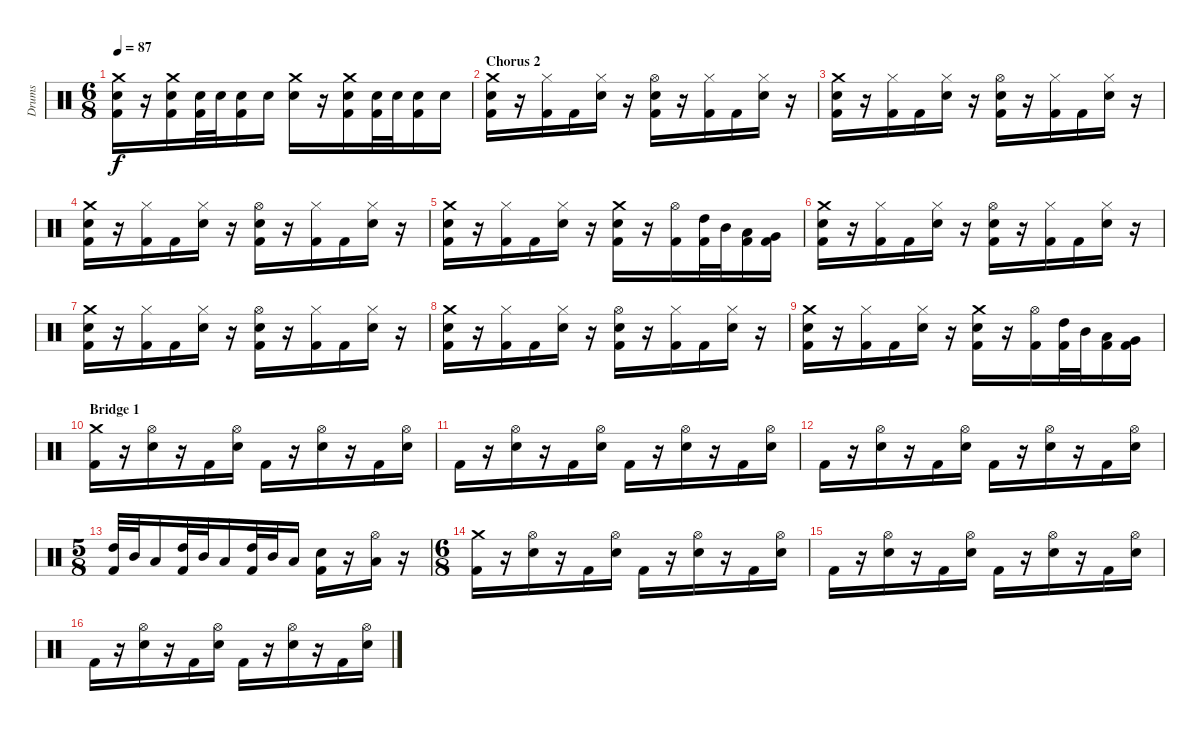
\track ("Drums" "Drums") {instrument percussion}
\staff {score}
\articulation defaults
\ts (6 8)
\tempo 87
\clef neutral
\ks c
("Crash medium (hit)" "Snare (hit) 2" "Kick (hit) 2").16{dy f} r.16 ("Crash medium (hit)" "Snare (hit) 2" "Kick (hit) 2").16 ("Snare (hit) 2" "Kick (hit) 2").32 "Snare (hit) 2".32 ("Snare (hit) 2" "Kick (hit) 2").16 "Snare (hit) 2".16 ("Crash medium (hit)" "Snare (hit) 2").16 r.16 ("Crash medium (hit)" "Snare (hit) 2" "Kick (hit) 2").16 ("Snare (hit) 2" "Kick (hit) 2").32 "Snare (hit) 2".32 ("Snare (hit) 2" "Kick (hit) 2").16 "Snare (hit) 2".16 |
\section ("" "Chorus 2")
("Crash medium (hit)" "Snare (hit) 2" "Kick (hit) 2").16 r.16 ("Hi-Hat (closed)" "Kick (hit) 2").16 "Kick (hit) 2".16 ("Hi-Hat (closed)" "Snare (hit) 2").16 r.16 ("Hi-Hat (open)" "Snare (hit) 2" "Kick (hit) 2").16 r.16 ("Hi-Hat (closed)" "Kick (hit) 2").16 "Kick (hit) 2".16 ("Hi-Hat (closed)" "Snare (hit) 2").16 r.16 |
("Crash medium (hit)" "Snare (hit) 2" "Kick (hit) 2").16 r.16 ("Hi-Hat (closed)" "Kick (hit) 2").16 "Kick (hit) 2".16 ("Hi-Hat (closed)" "Snare (hit) 2").16 r.16 ("Hi-Hat (open)" "Snare (hit) 2" "Kick (hit) 2").16 r.16 ("Hi-Hat (closed)" "Kick (hit) 2").16 "Kick (hit) 2".16 ("Hi-Hat (closed)" "Snare (hit) 2").16 r.16 |
("Crash medium (hit)" "Snare (hit) 2" "Kick (hit) 2").16 r.16 ("Hi-Hat (closed)" "Kick (hit) 2").16 "Kick (hit) 2".16 ("Hi-Hat (closed)" "Snare (hit) 2").16 r.16 ("Hi-Hat (open)" "Snare (hit) 2" "Kick (hit) 2").16 r.16 ("Hi-Hat (closed)" "Kick (hit) 2").16 "Kick (hit) 2".16 ("Hi-Hat (closed)" "Snare (hit) 2").16 r.16 |
("Crash medium (hit)" "Snare (hit) 2" "Kick (hit) 2").16 r.16 ("Hi-Hat (closed)" "Kick (hit) 2").16 "Kick (hit) 2".16 ("Hi-Hat (closed)" "Snare (hit) 2").16 r.16 ("Crash medium (hit)" "Snare (hit) 2" "Kick (hit) 2").16 r.16 ("Hi-Hat (open)" "Kick (hit) 2").16 ("High Tom (hit)" "Kick (hit) 2").32 "Mid Tom (hit)".32 ("Low Tom (hit)" "Kick (hit) 2").16 ("Very Low Tom (hit)" "Kick (hit) 2").16 |
("Crash medium (hit)" "Snare (hit) 2" "Kick (hit) 2").16 r.16 ("Hi-Hat (closed)" "Kick (hit) 2").16 "Kick (hit) 2".16 ("Hi-Hat (closed)" "Snare (hit) 2").16 r.16 ("Hi-Hat (open)" "Snare (hit) 2" "Kick (hit) 2").16 r.16 ("Hi-Hat (closed)" "Kick (hit) 2").16 "Kick (hit) 2".16 ("Hi-Hat (closed)" "Snare (hit) 2").16 r.16 |
("Crash medium (hit)" "Snare (hit) 2" "Kick (hit) 2").16 r.16 ("Hi-Hat (closed)" "Kick (hit) 2").16 "Kick (hit) 2".16 ("Hi-Hat (closed)" "Snare (hit) 2").16 r.16 ("Hi-Hat (open)" "Snare (hit) 2" "Kick (hit) 2").16 r.16 ("Hi-Hat (closed)" "Kick (hit) 2").16 "Kick (hit) 2".16 ("Hi-Hat (closed)" "Snare (hit) 2").16 r.16 |
("Crash medium (hit)" "Snare (hit) 2" "Kick (hit) 2").16 r.16 ("Hi-Hat (closed)" "Kick (hit) 2").16 "Kick (hit) 2".16 ("Hi-Hat (closed)" "Snare (hit) 2").16 r.16 ("Hi-Hat (open)" "Snare (hit) 2" "Kick (hit) 2").16 r.16 ("Hi-Hat (closed)" "Kick (hit) 2").16 "Kick (hit) 2".16 ("Hi-Hat (closed)" "Snare (hit) 2").16 r.16 |
("Crash medium (hit)" "Snare (hit) 2" "Kick (hit) 2").16 r.16 ("Hi-Hat (closed)" "Kick (hit) 2").16 "Kick (hit) 2".16 ("Hi-Hat (closed)" "Snare (hit) 2").16 r.16 ("Crash medium (hit)" "Snare (hit) 2" "Kick (hit) 2").16 r.16 ("Hi-Hat (open)" "Kick (hit) 2").16 ("High Tom (hit)" "Kick (hit) 2").32 "Mid Tom (hit)".32 ("Low Tom (hit)" "Kick (hit) 2").16 ("Very Low Tom (hit)" "Kick (hit) 2").16 |
\section ("" "Bridge 1")
("Crash medium (hit)" "Kick (hit) 2").16 r.16 ("Hi-Hat (open)" "Snare (hit) 2").16 r.16 "Kick (hit) 2".16 ("Hi-Hat (open)" "Snare (hit) 2").16 "Kick (hit) 2".16 r.16 ("Hi-Hat (open)" "Snare (hit) 2").16 r.16 "Kick (hit) 2".16 ("Hi-Hat (open)" "Snare (hit) 2").16 |
"Kick (hit) 2".16 r.16 ("Hi-Hat (open)" "Snare (hit) 2").16 r.16 "Kick (hit) 2".16 ("Hi-Hat (open)" "Snare (hit) 2").16 "Kick (hit) 2".16 r.16 ("Hi-Hat (open)" "Snare (hit) 2").16 r.16 "Kick (hit) 2".16 ("Hi-Hat (open)" "Snare (hit) 2").16 |
"Kick (hit) 2".16 r.16 ("Hi-Hat (open)" "Snare (hit) 2").16 r.16 "Kick (hit) 2".16 ("Hi-Hat (open)" "Snare (hit) 2").16 "Kick (hit) 2".16 r.16 ("Hi-Hat (open)" "Snare (hit) 2").16 r.16 "Kick (hit) 2".16 ("Hi-Hat (open)" "Snare (hit) 2").16 |
\ts (5 8)
("High Tom (hit)" "Kick (hit) 2").32 "Mid Tom (hit)".32 "Low Tom (hit)".16 ("High Tom (hit)" "Kick (hit) 2").32 "Mid Tom (hit)".32 "Low Tom (hit)".16 ("High Tom (hit)" "Kick (hit) 2").32 "Mid Tom (hit)".32 "Low Tom (hit)".16 ("Snare (hit) 2" "Kick (hit) 2").16 r.16 ("Hi-Hat (open)" "Low Tom (hit)").16 r.16 |
\ts (6 8)
("Crash medium (hit)" "Kick (hit) 2").16 r.16 ("Hi-Hat (open)" "Snare (hit) 2").16 r.16 "Kick (hit) 2".16 ("Hi-Hat (open)" "Snare (hit) 2").16 "Kick (hit) 2".16 r.16 ("Hi-Hat (open)" "Snare (hit) 2").16 r.16 "Kick (hit) 2".16 ("Hi-Hat (open)" "Snare (hit) 2").16 |
"Kick (hit) 2".16 r.16 ("Hi-Hat (open)" "Snare (hit) 2").16 r.16 "Kick (hit) 2".16 ("Hi-Hat (open)" "Snare (hit) 2").16 "Kick (hit) 2".16 r.16 ("Hi-Hat (open)" "Snare (hit) 2").16 r.16 "Kick (hit) 2".16 ("Hi-Hat (open)" "Snare (hit) 2").16 |
"Kick (hit) 2".16 r.16 ("Hi-Hat (open)" "Snare (hit) 2").16 r.16 "Kick (hit) 2".16 ("Hi-Hat (open)" "Snare (hit) 2").16 "Kick (hit) 2".16 r.16 ("Hi-Hat (open)" "Snare (hit) 2").16 r.16 "Kick (hit) 2".16 ("Hi-Hat (open)" "Snare (hit) 2").16
